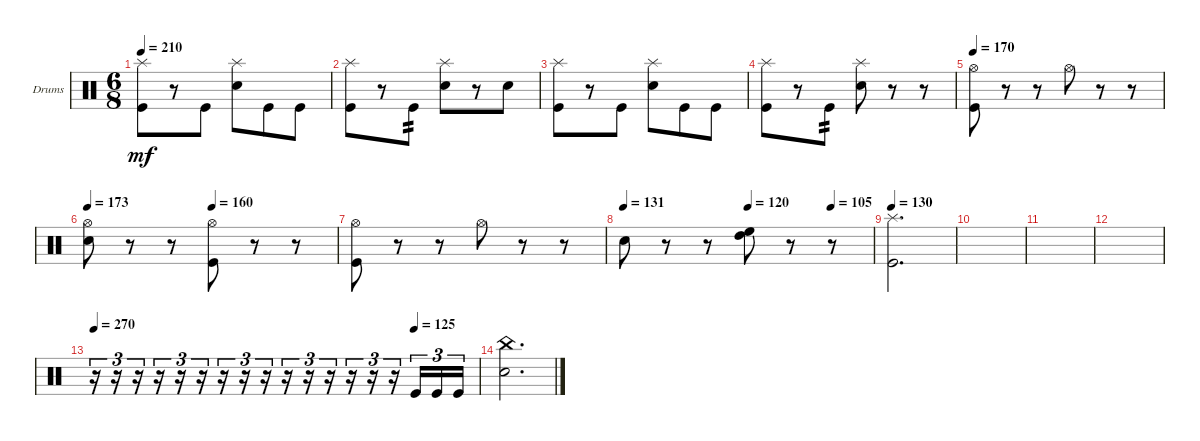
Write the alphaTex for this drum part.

\bracketExtendMode groupsimilarinstruments
\firstSystemTrackNameOrientation horizontal
\otherSystemsTrackNameOrientation horizontal
\track ("Drumkit" "Drums") {instrument percussion}
\staff {score}
\articulation defaults
\ts (6 8)
\tempo 210
\clef neutral
\ks c
("Kick (hit)" "Splash (hit)").8{dy mf} r.8 "Kick (hit)".8 ("Snare (hit) 2" "Splash (hit)").8 "Kick (hit)".8 "Kick (hit)".8 |
("Kick (hit)" "Splash (hit)").8 r.8 "Kick (hit)".8{tp 2} ("Snare (hit) 2" "Splash (hit)").8 r.8 "Snare (hit) 2".8 |
("Kick (hit)" "Splash (hit)").8 r.8 "Kick (hit)".8 ("Snare (hit) 2" "Splash (hit)").8 "Kick (hit)".8 "Kick (hit)".8 |
("Kick (hit)" "Splash (hit)").8 r.8 "Kick (hit)".8{tp 2} ("Snare (hit) 2" "Splash (hit)").8 r.8 r.8 |
\tempo 170
("Kick (hit)" "Hi-Hat (open)").8 r.8 r.8 "Hi-Hat (open)".8 r.8 r.8 |
\tempo 173
\tempo (160 0.5)
("Snare (hit) 2" "Hi-Hat (open)").8 r.8 r.8 ("Kick (hit)" "Hi-Hat (open)").8 r.8 r.8 |
("Kick (hit)" "Hi-Hat (open)").8 r.8 r.8 "Hi-Hat (open)".8 r.8 r.8 |
\tempo 131
\tempo (120 0.5)
\tempo (105 0.833333)
"Snare (hit) 2".8 r.8 r.8 ("High Floor Tom (hit)" "High Tom (hit)").8 r.8 r.8 |
\tempo 130
("Kick (hit)" "Splash (hit)").2{d} |
|
|
|
\tempo 270
\tempo (125 0.833333)
r.16{tu (3 2)} r.16{tu (3 2)} r.16{tu (3 2)} r.16{tu (3 2)} r.16{tu (3 2)} r.16{tu (3 2)} r.16{tu (3 2)} r.16{tu (3 2)} r.16{tu (3 2)} r.16{tu (3 2)} r.16{tu (3 2)} r.16{tu (3 2)} r.16{tu (3 2)} r.16{tu (3 2)} r.16{tu (3 2)} "Kick (hit)".16{tu (3 2)} "Kick (hit)".16{tu (3 2)} "Kick (hit)".16{tu (3 2)} |
("Snare (hit) 2" "China (hit)").2{d}
